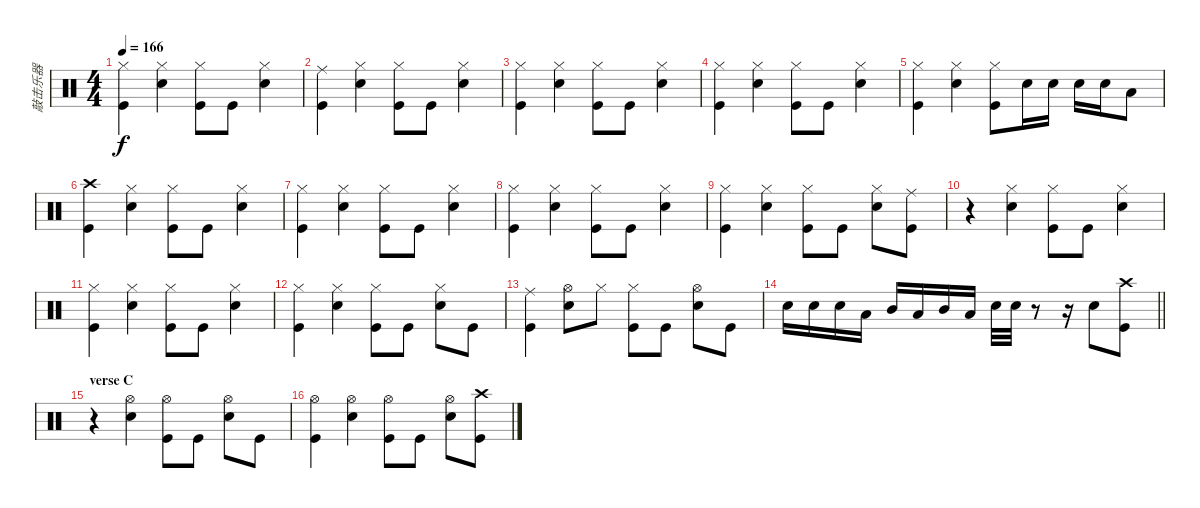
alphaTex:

\track ("敲击乐器" "敲击乐器") {instrument percussion}
\staff {score}
\articulation defaults
\ts (4 4)
\tempo 166
\clef neutral
\ks c
("Hi-Hat (closed)" "Kick (hit)").4{dy f} ("Hi-Hat (closed)" "Snare (hit) 2").4 ("Hi-Hat (closed)" "Kick (hit)").8 "Kick (hit)".8 ("Snare (hit) 2" "Hi-Hat (closed)").4 |
("Ride (middle)" "Kick (hit)").4 ("Hi-Hat (closed)" "Snare (hit) 2").4 ("Hi-Hat (closed)" "Kick (hit)").8 "Kick (hit)".8 ("Snare (hit) 2" "Hi-Hat (closed)").4 |
("Hi-Hat (closed)" "Kick (hit)").4 ("Hi-Hat (closed)" "Snare (hit) 2").4 ("Hi-Hat (closed)" "Kick (hit)").8 "Kick (hit)".8 ("Snare (hit) 2" "Hi-Hat (closed)").4 |
("Hi-Hat (closed)" "Kick (hit)").4 ("Hi-Hat (closed)" "Snare (hit) 2").4 ("Hi-Hat (closed)" "Kick (hit)").8 "Kick (hit)".8 ("Snare (hit) 2" "Hi-Hat (closed)").4 |
("Hi-Hat (closed)" "Kick (hit)").4 ("Hi-Hat (closed)" "Snare (hit) 2").4 ("Hi-Hat (closed)" "Kick (hit)").8 "Snare (hit) 2".16 "Snare (hit) 2".16 "Snare (hit) 2".16 "Snare (hit) 2".16 "Low Tom (hit)".8 |
("Kick (hit)" "Crash high (hit)").4 ("Snare (hit) 2" "Hi-Hat (closed)").4 ("Kick (hit)" "Hi-Hat (closed)").8 "Kick (hit)".8 ("Snare (hit) 2" "Hi-Hat (closed)").4 |
("Hi-Hat (closed)" "Kick (hit)").4 ("Hi-Hat (closed)" "Snare (hit) 2").4 ("Hi-Hat (closed)" "Kick (hit)").8 "Kick (hit)".8 ("Snare (hit) 2" "Hi-Hat (closed)").4 |
("Hi-Hat (closed)" "Kick (hit)").4 ("Hi-Hat (closed)" "Snare (hit) 2").4 ("Hi-Hat (closed)" "Kick (hit)").8 "Kick (hit)".8 ("Snare (hit) 2" "Hi-Hat (closed)").4 |
("Hi-Hat (closed)" "Kick (hit)").4 ("Hi-Hat (closed)" "Snare (hit) 2").4 ("Hi-Hat (closed)" "Kick (hit)").8 "Kick (hit)".8 ("Snare (hit) 2" "Hi-Hat (closed)").8 ("Kick (hit)" "Ride (middle)").8 |
r.4 ("Hi-Hat (closed)" "Snare (hit) 2").4 ("Hi-Hat (closed)" "Kick (hit)").8 "Kick (hit)".8 ("Snare (hit) 2" "Hi-Hat (closed)").4 |
("Hi-Hat (closed)" "Kick (hit)").4 ("Hi-Hat (closed)" "Snare (hit) 2").4 ("Hi-Hat (closed)" "Kick (hit)").8 "Kick (hit)".8 ("Snare (hit) 2" "Hi-Hat (closed)").4 |
("Hi-Hat (closed)" "Kick (hit)").4 ("Hi-Hat (closed)" "Snare (hit) 2").4 ("Hi-Hat (closed)" "Kick (hit)").8 "Kick (hit)".8 ("Snare (hit) 2" "Hi-Hat (closed)").8 "Kick (hit)".8 |
("Kick (hit)" "Ride (middle)").4 ("Snare (hit) 2" "Hi-Hat (open)").8 "Hi-Hat (closed)".8 ("Kick (hit)" "Hi-Hat (closed)").8 "Kick (hit)".8 ("Snare (hit) 2" "Hi-Hat (open)").8 "Kick (hit)".8 |
\barLineRight lightlight "Snare (hit) 2".16 "Snare (hit) 2".16 "Snare (hit) 2".16 "Low Tom (hit)".16 "Mid Tom (hit)".16 "Low Tom (hit)".16 "Mid Tom (hit)".16 "Low Floor Tom (hit)".16 "Snare (hit) 2".32 "Snare (hit) 2".32
r.8 r.16 "Snare (hit) 2".8 ("Kick (hit)" "Crash high (hit)").8 |
\section ("" "verse C")
r.4 ("Hi-Hat (open)" "Snare (hit) 2").4 ("Kick (hit)" "Hi-Hat (open)").8 "Kick (hit)".8 ("Snare (hit) 2" "Hi-Hat (open)").8 "Kick (hit)".8 |
("Kick (hit)" "Hi-Hat (open)").4 ("Hi-Hat (open)" "Snare (hit) 2").4 ("Kick (hit)" "Hi-Hat (open)").8 "Kick (hit)".8 ("Snare (hit) 2" "Hi-Hat (open)").8 ("Kick (hit)" "Crash high (hit)").8
